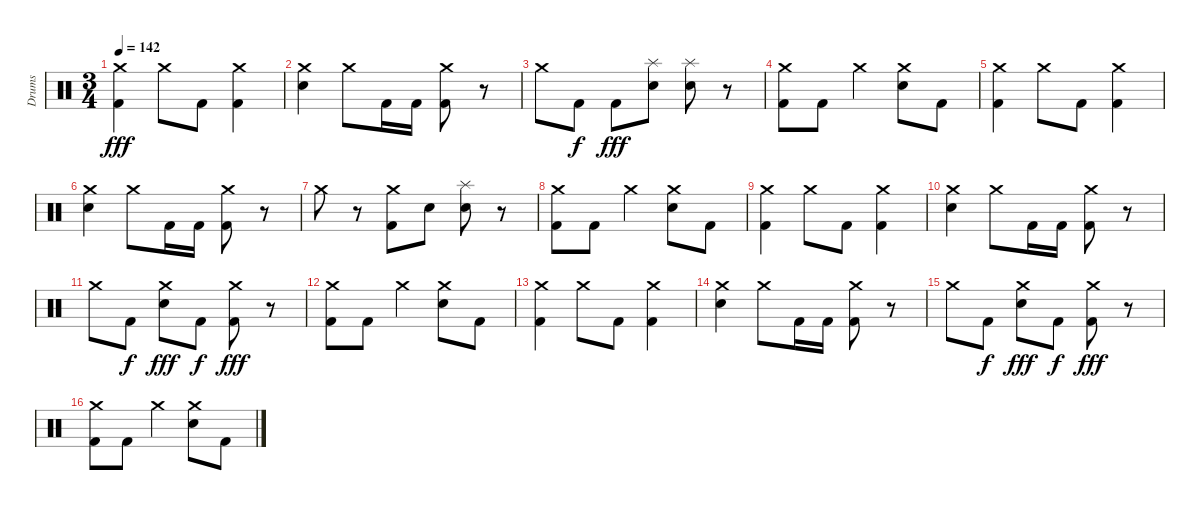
\track ("Drums" "Drums") {instrument percussion}
\staff {score}
\articulation defaults
\ts (3 4)
\tempo 142
\clef neutral
\ks c
("Crash medium (hit)" "Kick (hit) 2").4{dy fff} "Crash medium (hit)".8 "Kick (hit) 2".8 ("Crash medium (hit)" "Kick (hit) 2").4 |
("Crash medium (hit)" "Electric Snare (hit)").4 "Crash medium (hit)".8 "Kick (hit) 2".16 "Kick (hit) 2".16 ("Crash medium (hit)" "Kick (hit) 2").8 r.8 |
"Crash medium (hit)".8 "Kick (hit) 2".8{dy f} "Kick (hit) 2".8{dy fff} ("Splash (hit)" "Electric Snare (hit)").8 ("Splash (hit)" "Electric Snare (hit)").8 r.8 |
("Crash medium (hit)" "Kick (hit) 2").8 "Kick (hit) 2".8 "Crash medium (hit)".4 ("Crash medium (hit)" "Electric Snare (hit)").8 "Kick (hit) 2".8 |
("Crash medium (hit)" "Kick (hit) 2").4 "Crash medium (hit)".8 "Kick (hit) 2".8 ("Crash medium (hit)" "Kick (hit) 2").4 |
("Crash medium (hit)" "Electric Snare (hit)").4 "Crash medium (hit)".8 "Kick (hit) 2".16 "Kick (hit) 2".16 ("Crash medium (hit)" "Kick (hit) 2").8 r.8 |
"Crash medium (hit)".8 r.8 ("Crash medium (hit)" "Kick (hit) 2").8 "Electric Snare (hit)".8 ("Splash (hit)" "Electric Snare (hit)").8 r.8 |
("Crash medium (hit)" "Kick (hit) 2").8 "Kick (hit) 2".8 "Crash medium (hit)".4 ("Crash medium (hit)" "Electric Snare (hit)").8 "Kick (hit) 2".8 |
("Crash medium (hit)" "Kick (hit) 2").4 "Crash medium (hit)".8 "Kick (hit) 2".8 ("Crash medium (hit)" "Kick (hit) 2").4 |
("Crash medium (hit)" "Electric Snare (hit)").4 "Crash medium (hit)".8 "Kick (hit) 2".16 "Kick (hit) 2".16 ("Crash medium (hit)" "Kick (hit) 2").8 r.8 |
"Crash medium (hit)".8 "Kick (hit) 2".8{dy f} ("Crash medium (hit)" "Electric Snare (hit)").8{dy fff} "Kick (hit) 2".8{dy f} ("Crash medium (hit)" "Kick (hit) 2").8{dy fff} r.8 |
("Crash medium (hit)" "Kick (hit) 2").8 "Kick (hit) 2".8 "Crash medium (hit)".4 ("Crash medium (hit)" "Electric Snare (hit)").8 "Kick (hit) 2".8 |
("Crash medium (hit)" "Kick (hit) 2").4 "Crash medium (hit)".8 "Kick (hit) 2".8 ("Crash medium (hit)" "Kick (hit) 2").4 |
("Crash medium (hit)" "Electric Snare (hit)").4 "Crash medium (hit)".8 "Kick (hit) 2".16 "Kick (hit) 2".16 ("Crash medium (hit)" "Kick (hit) 2").8 r.8 |
"Crash medium (hit)".8 "Kick (hit) 2".8{dy f} ("Crash medium (hit)" "Electric Snare (hit)").8{dy fff} "Kick (hit) 2".8{dy f} ("Crash medium (hit)" "Kick (hit) 2").8{dy fff} r.8 |
("Crash medium (hit)" "Kick (hit) 2").8 "Kick (hit) 2".8 "Crash medium (hit)".4 ("Crash medium (hit)" "Electric Snare (hit)").8 "Kick (hit) 2".8
